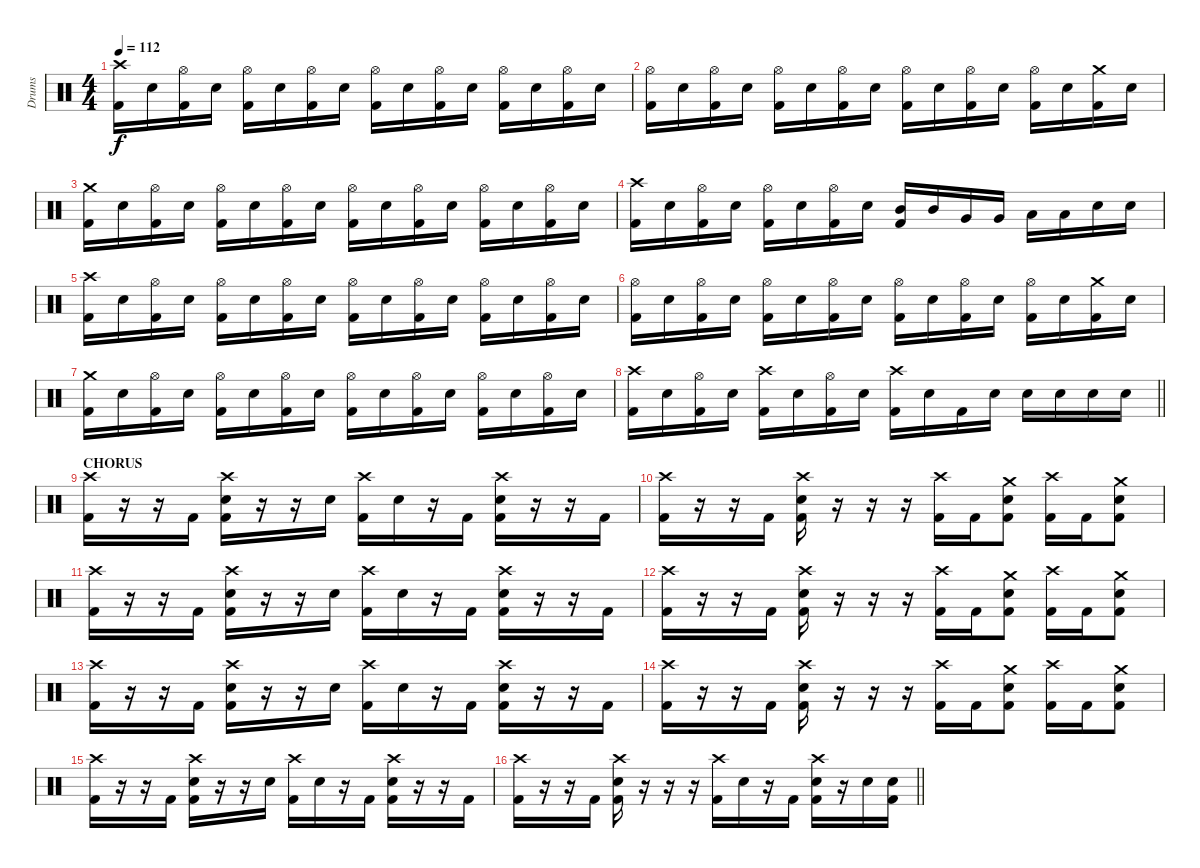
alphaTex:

\track ("Drums" "Drums") {instrument percussion}
\staff
\articulation defaults
\ts (4 4)
\section ("" "")
\tempo 112
\clef neutral
\ks c
("Crash high (hit)" "Kick (hit) 2").16{dy f} "Snare (hit) 2".16 ("Hi-Hat (open)" "Kick (hit) 2").16 "Snare (hit) 2".16 ("Hi-Hat (open)" "Kick (hit) 2").16 "Snare (hit) 2".16 ("Hi-Hat (open)" "Kick (hit) 2").16 "Snare (hit) 2".16 ("Hi-Hat (open)" "Kick (hit) 2").16 "Snare (hit) 2".16 ("Hi-Hat (open)" "Kick (hit) 2").16 "Snare (hit) 2".16 ("Hi-Hat (open)" "Kick (hit) 2").16 "Snare (hit) 2".16 ("Hi-Hat (open)" "Kick (hit) 2").16 "Snare (hit) 2".16 |
("Hi-Hat (open)" "Kick (hit) 2").16 "Snare (hit) 2".16 ("Hi-Hat (open)" "Kick (hit) 2").16 "Snare (hit) 2".16 ("Hi-Hat (open)" "Kick (hit) 2").16 "Snare (hit) 2".16 ("Hi-Hat (open)" "Kick (hit) 2").16 "Snare (hit) 2".16 ("Hi-Hat (open)" "Kick (hit) 2").16 "Snare (hit) 2".16 ("Hi-Hat (open)" "Kick (hit) 2").16 "Snare (hit) 2".16 ("Hi-Hat (open)" "Kick (hit) 2").16 "Snare (hit) 2".16 ("Crash medium (hit)" "Kick (hit) 2").16 "Snare (hit) 2".16 |
("Crash medium (hit)" "Kick (hit) 2").16 "Snare (hit) 2".16 ("Hi-Hat (open)" "Kick (hit) 2").16 "Snare (hit) 2".16 ("Hi-Hat (open)" "Kick (hit) 2").16 "Snare (hit) 2".16 ("Hi-Hat (open)" "Kick (hit) 2").16 "Snare (hit) 2".16 ("Hi-Hat (open)" "Kick (hit) 2").16 "Snare (hit) 2".16 ("Hi-Hat (open)" "Kick (hit) 2").16 "Snare (hit) 2".16 ("Hi-Hat (open)" "Kick (hit) 2").16 "Snare (hit) 2".16 ("Hi-Hat (open)" "Kick (hit) 2").16 "Snare (hit) 2".16 |
("Crash high (hit)" "Kick (hit) 2").16 "Snare (hit) 2".16 ("Hi-Hat (open)" "Kick (hit) 2").16 "Snare (hit) 2".16 ("Hi-Hat (open)" "Kick (hit) 2").16 "Snare (hit) 2".16 ("Hi-Hat (open)" "Kick (hit) 2").16 "Snare (hit) 2".16 ("Mid Tom (hit)" "Kick (hit) 2").16 "Mid Tom (hit)".16 "Very Low Tom (hit)".16 "Very Low Tom (hit)".16 "Low Tom (hit)".16 "Low Tom (hit)".16 "Snare (hit) 2".16 "Snare (hit) 2".16 |
("Crash high (hit)" "Kick (hit) 2").16 "Snare (hit) 2".16 ("Hi-Hat (open)" "Kick (hit) 2").16 "Snare (hit) 2".16 ("Hi-Hat (open)" "Kick (hit) 2").16 "Snare (hit) 2".16 ("Hi-Hat (open)" "Kick (hit) 2").16 "Snare (hit) 2".16 ("Hi-Hat (open)" "Kick (hit) 2").16 "Snare (hit) 2".16 ("Hi-Hat (open)" "Kick (hit) 2").16 "Snare (hit) 2".16 ("Hi-Hat (open)" "Kick (hit) 2").16 "Snare (hit) 2".16 ("Hi-Hat (open)" "Kick (hit) 2").16 "Snare (hit) 2".16 |
("Hi-Hat (open)" "Kick (hit) 2").16 "Snare (hit) 2".16 ("Hi-Hat (open)" "Kick (hit) 2").16 "Snare (hit) 2".16 ("Hi-Hat (open)" "Kick (hit) 2").16 "Snare (hit) 2".16 ("Hi-Hat (open)" "Kick (hit) 2").16 "Snare (hit) 2".16 ("Hi-Hat (open)" "Kick (hit) 2").16 "Snare (hit) 2".16 ("Hi-Hat (open)" "Kick (hit) 2").16 "Snare (hit) 2".16 ("Hi-Hat (open)" "Kick (hit) 2").16 "Snare (hit) 2".16 ("Crash medium (hit)" "Kick (hit) 2").16 "Snare (hit) 2".16 |
("Crash medium (hit)" "Kick (hit) 2").16 "Snare (hit) 2".16 ("Hi-Hat (open)" "Kick (hit) 2").16 "Snare (hit) 2".16 ("Hi-Hat (open)" "Kick (hit) 2").16 "Snare (hit) 2".16 ("Hi-Hat (open)" "Kick (hit) 2").16 "Snare (hit) 2".16 ("Hi-Hat (open)" "Kick (hit) 2").16 "Snare (hit) 2".16 ("Hi-Hat (open)" "Kick (hit) 2").16 "Snare (hit) 2".16 ("Hi-Hat (open)" "Kick (hit) 2").16 "Snare (hit) 2".16 ("Hi-Hat (open)" "Kick (hit) 2").16 "Snare (hit) 2".16 |
\barLineRight lightlight
("Crash high (hit)" "Kick (hit) 2").16 "Snare (hit) 2".16 ("Hi-Hat (open)" "Kick (hit) 2").16 "Snare (hit) 2".16 ("Crash high (hit)" "Kick (hit) 2").16 "Snare (hit) 2".16 ("Hi-Hat (open)" "Kick (hit) 2").16 "Snare (hit) 2".16 ("Crash high (hit)" "Kick (hit) 2").16 "Snare (hit) 2".16 "Kick (hit) 2".16 "Snare (hit) 2".16 "Snare (hit) 2".16 "Snare (hit) 2".16 "Snare (hit) 2".16 "Snare (hit) 2".16 |
\section ("" "CHORUS")
("Crash high (hit)" "Kick (hit) 2").16 r.16 r.16 "Kick (hit) 2".16 ("Crash high (hit)" "Snare (hit) 2" "Kick (hit) 2").16 r.16 r.16 "Snare (hit) 2".16 ("Crash high (hit)" "Kick (hit) 2").16 "Snare (hit) 2".16 r.16 "Kick (hit) 2".16 ("Crash high (hit)" "Snare (hit) 2" "Kick (hit) 2").16 r.16 r.16 "Kick (hit) 2".16 |
("Crash high (hit)" "Kick (hit) 2").16 r.16 r.16 "Kick (hit) 2".16 ("Crash high (hit)" "Snare (hit) 2" "Kick (hit) 2").16 r.16 r.16 r.16 ("Crash high (hit)" "Kick (hit) 2").16 "Kick (hit) 2".16 ("Crash medium (hit)" "Snare (hit) 2" "Kick (hit) 2").8 ("Crash high (hit)" "Kick (hit) 2").16 "Kick (hit) 2".16 ("Crash medium (hit)" "Snare (hit) 2" "Kick (hit) 2").8 |
("Crash high (hit)" "Kick (hit) 2").16 r.16 r.16 "Kick (hit) 2".16 ("Crash high (hit)" "Snare (hit) 2" "Kick (hit) 2").16 r.16 r.16 "Snare (hit) 2".16 ("Crash high (hit)" "Kick (hit) 2").16 "Snare (hit) 2".16 r.16 "Kick (hit) 2".16 ("Crash high (hit)" "Snare (hit) 2" "Kick (hit) 2").16 r.16 r.16 "Kick (hit) 2".16 |
("Crash high (hit)" "Kick (hit) 2").16 r.16 r.16 "Kick (hit) 2".16 ("Crash high (hit)" "Snare (hit) 2" "Kick (hit) 2").16 r.16 r.16 r.16 ("Crash high (hit)" "Kick (hit) 2").16 "Kick (hit) 2".16 ("Crash medium (hit)" "Snare (hit) 2" "Kick (hit) 2").8 ("Crash high (hit)" "Kick (hit) 2").16 "Kick (hit) 2".16 ("Crash medium (hit)" "Snare (hit) 2" "Kick (hit) 2").8 |
("Crash high (hit)" "Kick (hit) 2").16 r.16 r.16 "Kick (hit) 2".16 ("Crash high (hit)" "Snare (hit) 2" "Kick (hit) 2").16 r.16 r.16 "Snare (hit) 2".16 ("Crash high (hit)" "Kick (hit) 2").16 "Snare (hit) 2".16 r.16 "Kick (hit) 2".16 ("Crash high (hit)" "Snare (hit) 2" "Kick (hit) 2").16 r.16 r.16 "Kick (hit) 2".16 |
("Crash high (hit)" "Kick (hit) 2").16 r.16 r.16 "Kick (hit) 2".16 ("Crash high (hit)" "Snare (hit) 2" "Kick (hit) 2").16 r.16 r.16 r.16 ("Crash high (hit)" "Kick (hit) 2").16 "Kick (hit) 2".16 ("Crash medium (hit)" "Snare (hit) 2" "Kick (hit) 2").8 ("Crash high (hit)" "Kick (hit) 2").16 "Kick (hit) 2".16 ("Crash medium (hit)" "Snare (hit) 2" "Kick (hit) 2").8 |
("Crash high (hit)" "Kick (hit) 2").16 r.16 r.16 "Kick (hit) 2".16 ("Crash high (hit)" "Snare (hit) 2" "Kick (hit) 2").16 r.16 r.16 "Snare (hit) 2".16 ("Crash high (hit)" "Kick (hit) 2").16 "Snare (hit) 2".16 r.16 "Kick (hit) 2".16 ("Crash high (hit)" "Snare (hit) 2" "Kick (hit) 2").16 r.16 r.16 "Kick (hit) 2".16 |
\barLineRight lightlight
("Crash high (hit)" "Kick (hit) 2").16 r.16 r.16 "Kick (hit) 2".16 ("Crash high (hit)" "Snare (hit) 2" "Kick (hit) 2").16 r.16 r.16 r.16 ("Crash high (hit)" "Kick (hit) 2").16 "Snare (hit) 2".16 r.16 "Kick (hit) 2".16 ("Crash high (hit)" "Snare (hit) 2" "Kick (hit) 2").16 r.16 "Snare (hit) 2".16 ("Snare (hit) 2" "Kick (hit) 2").16
